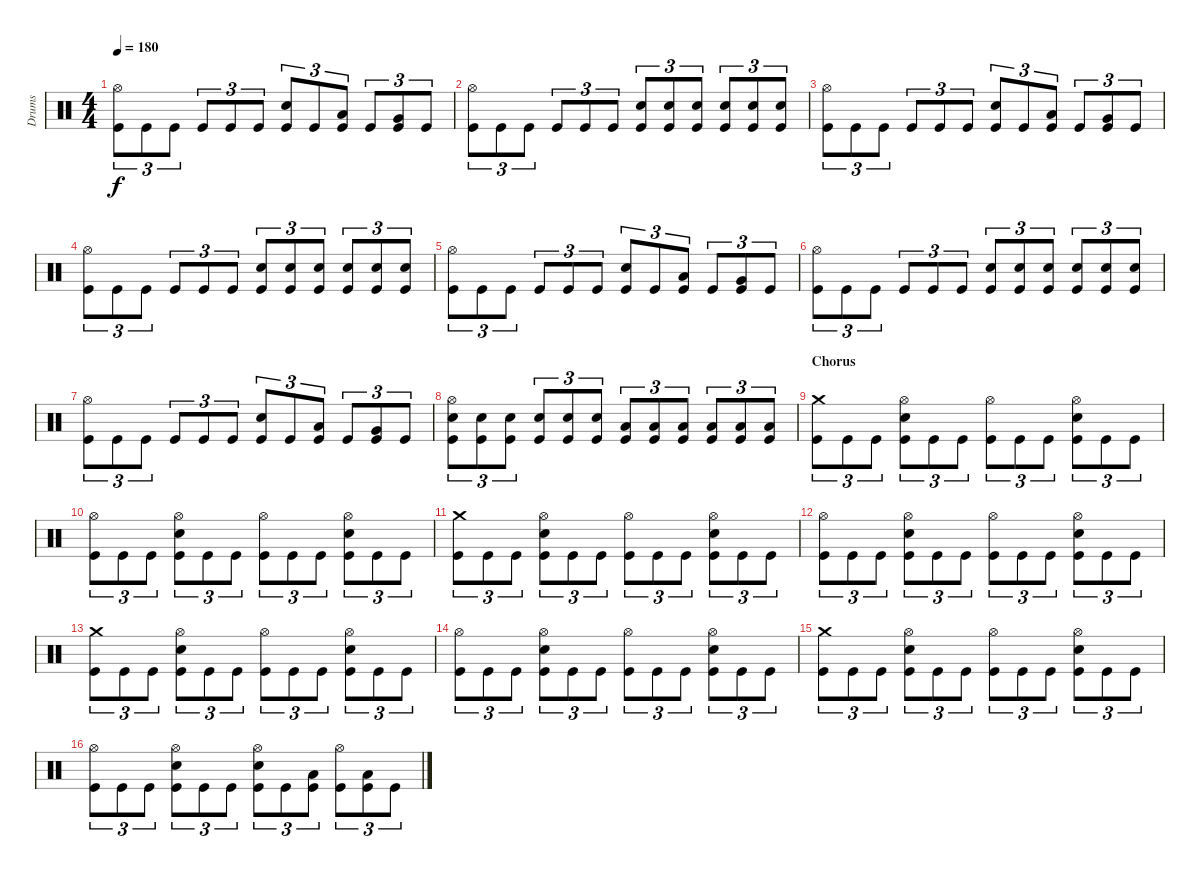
\track ("Drums" "Drums") {instrument percussion}
\staff {score}
\articulation defaults
\ts (4 4)
\tempo 180
\clef neutral
\ks c
("Hi-Hat (open)" "Kick (hit)").8{tu (3 2) dy f} "Kick (hit)".8{tu (3 2)} "Kick (hit)".8{tu (3 2)} "Kick (hit)".8{tu (3 2)} "Kick (hit)".8{tu (3 2)} "Kick (hit)".8{tu (3 2)} ("Electric Snare (hit)" "Kick (hit)").8{tu (3 2)} "Kick (hit)".8{tu (3 2)} ("Low Tom (hit)" "Kick (hit)").8{tu (3 2)} "Kick (hit)".8{tu (3 2)} ("Very Low Tom (hit)" "Kick (hit)").8{tu (3 2)} "Kick (hit)".8{tu (3 2)} |
("Hi-Hat (open)" "Kick (hit)").8{tu (3 2)} "Kick (hit)".8{tu (3 2)} "Kick (hit)".8{tu (3 2)} "Kick (hit)".8{tu (3 2)} "Kick (hit)".8{tu (3 2)} "Kick (hit)".8{tu (3 2)} ("Electric Snare (hit)" "Kick (hit)").8{tu (3 2)} ("Electric Snare (hit)" "Kick (hit)").8{tu (3 2)} ("Electric Snare (hit)" "Kick (hit)").8{tu (3 2)} ("Electric Snare (hit)" "Kick (hit)").8{tu (3 2)} ("Electric Snare (hit)" "Kick (hit)").8{tu (3 2)} ("Electric Snare (hit)" "Kick (hit)").8{tu (3 2)} |
("Hi-Hat (open)" "Kick (hit)").8{tu (3 2)} "Kick (hit)".8{tu (3 2)} "Kick (hit)".8{tu (3 2)} "Kick (hit)".8{tu (3 2)} "Kick (hit)".8{tu (3 2)} "Kick (hit)".8{tu (3 2)} ("Electric Snare (hit)" "Kick (hit)").8{tu (3 2)} "Kick (hit)".8{tu (3 2)} ("Low Tom (hit)" "Kick (hit)").8{tu (3 2)} "Kick (hit)".8{tu (3 2)} ("Very Low Tom (hit)" "Kick (hit)").8{tu (3 2)} "Kick (hit)".8{tu (3 2)} |
("Hi-Hat (open)" "Kick (hit)").8{tu (3 2)} "Kick (hit)".8{tu (3 2)} "Kick (hit)".8{tu (3 2)} "Kick (hit)".8{tu (3 2)} "Kick (hit)".8{tu (3 2)} "Kick (hit)".8{tu (3 2)} ("Electric Snare (hit)" "Kick (hit)").8{tu (3 2)} ("Electric Snare (hit)" "Kick (hit)").8{tu (3 2)} ("Electric Snare (hit)" "Kick (hit)").8{tu (3 2)} ("Electric Snare (hit)" "Kick (hit)").8{tu (3 2)} ("Electric Snare (hit)" "Kick (hit)").8{tu (3 2)} ("Electric Snare (hit)" "Kick (hit)").8{tu (3 2)} |
("Hi-Hat (open)" "Kick (hit)").8{tu (3 2)} "Kick (hit)".8{tu (3 2)} "Kick (hit)".8{tu (3 2)} "Kick (hit)".8{tu (3 2)} "Kick (hit)".8{tu (3 2)} "Kick (hit)".8{tu (3 2)} ("Electric Snare (hit)" "Kick (hit)").8{tu (3 2)} "Kick (hit)".8{tu (3 2)} ("Low Tom (hit)" "Kick (hit)").8{tu (3 2)} "Kick (hit)".8{tu (3 2)} ("Very Low Tom (hit)" "Kick (hit)").8{tu (3 2)} "Kick (hit)".8{tu (3 2)} |
("Hi-Hat (open)" "Kick (hit)").8{tu (3 2)} "Kick (hit)".8{tu (3 2)} "Kick (hit)".8{tu (3 2)} "Kick (hit)".8{tu (3 2)} "Kick (hit)".8{tu (3 2)} "Kick (hit)".8{tu (3 2)} ("Electric Snare (hit)" "Kick (hit)").8{tu (3 2)} ("Electric Snare (hit)" "Kick (hit)").8{tu (3 2)} ("Electric Snare (hit)" "Kick (hit)").8{tu (3 2)} ("Electric Snare (hit)" "Kick (hit)").8{tu (3 2)} ("Electric Snare (hit)" "Kick (hit)").8{tu (3 2)} ("Electric Snare (hit)" "Kick (hit)").8{tu (3 2)} |
("Hi-Hat (open)" "Kick (hit)").8{tu (3 2)} "Kick (hit)".8{tu (3 2)} "Kick (hit)".8{tu (3 2)} "Kick (hit)".8{tu (3 2)} "Kick (hit)".8{tu (3 2)} "Kick (hit)".8{tu (3 2)} ("Electric Snare (hit)" "Kick (hit)").8{tu (3 2)} "Kick (hit)".8{tu (3 2)} ("Low Tom (hit)" "Kick (hit)").8{tu (3 2)} "Kick (hit)".8{tu (3 2)} ("Very Low Tom (hit)" "Kick (hit)").8{tu (3 2)} "Kick (hit)".8{tu (3 2)} |
("Hi-Hat (open)" "Electric Snare (hit)" "Kick (hit)").8{tu (3 2)} ("Electric Snare (hit)" "Kick (hit)").8{tu (3 2)} ("Electric Snare (hit)" "Kick (hit)").8{tu (3 2)} ("Electric Snare (hit)" "Kick (hit)").8{tu (3 2)} ("Electric Snare (hit)" "Kick (hit)").8{tu (3 2)} ("Electric Snare (hit)" "Kick (hit)").8{tu (3 2)} ("Low Tom (hit)" "Kick (hit)").8{tu (3 2)} ("Low Tom (hit)" "Kick (hit)").8{tu (3 2)} ("Low Tom (hit)" "Kick (hit)").8{tu (3 2)} ("Low Tom (hit)" "Kick (hit)").8{tu (3 2)} ("Low Tom (hit)" "Kick (hit)").8{tu (3 2)} ("Low Tom (hit)" "Kick (hit)").8{tu (3 2)} |
\section ("" "Chorus")
("Crash medium (hit)" "Kick (hit)").8{tu (3 2)} "Kick (hit)".8{tu (3 2)} "Kick (hit)".8{tu (3 2)} ("Hi-Hat (open)" "Electric Snare (hit)" "Kick (hit)").8{tu (3 2)} "Kick (hit)".8{tu (3 2)} "Kick (hit)".8{tu (3 2)} ("Hi-Hat (open)" "Kick (hit)").8{tu (3 2)} "Kick (hit)".8{tu (3 2)} "Kick (hit)".8{tu (3 2)} ("Hi-Hat (open)" "Electric Snare (hit)" "Kick (hit)").8{tu (3 2)} "Kick (hit)".8{tu (3 2)} "Kick (hit)".8{tu (3 2)} |
("Hi-Hat (open)" "Kick (hit)").8{tu (3 2)} "Kick (hit)".8{tu (3 2)} "Kick (hit)".8{tu (3 2)} ("Hi-Hat (open)" "Electric Snare (hit)" "Kick (hit)").8{tu (3 2)} "Kick (hit)".8{tu (3 2)} "Kick (hit)".8{tu (3 2)} ("Hi-Hat (open)" "Kick (hit)").8{tu (3 2)} "Kick (hit)".8{tu (3 2)} "Kick (hit)".8{tu (3 2)} ("Hi-Hat (open)" "Electric Snare (hit)" "Kick (hit)").8{tu (3 2)} "Kick (hit)".8{tu (3 2)} "Kick (hit)".8{tu (3 2)} |
("Crash medium (hit)" "Kick (hit)").8{tu (3 2)} "Kick (hit)".8{tu (3 2)} "Kick (hit)".8{tu (3 2)} ("Hi-Hat (open)" "Electric Snare (hit)" "Kick (hit)").8{tu (3 2)} "Kick (hit)".8{tu (3 2)} "Kick (hit)".8{tu (3 2)} ("Hi-Hat (open)" "Kick (hit)").8{tu (3 2)} "Kick (hit)".8{tu (3 2)} "Kick (hit)".8{tu (3 2)} ("Hi-Hat (open)" "Electric Snare (hit)" "Kick (hit)").8{tu (3 2)} "Kick (hit)".8{tu (3 2)} "Kick (hit)".8{tu (3 2)} |
("Hi-Hat (open)" "Kick (hit)").8{tu (3 2)} "Kick (hit)".8{tu (3 2)} "Kick (hit)".8{tu (3 2)} ("Hi-Hat (open)" "Electric Snare (hit)" "Kick (hit)").8{tu (3 2)} "Kick (hit)".8{tu (3 2)} "Kick (hit)".8{tu (3 2)} ("Hi-Hat (open)" "Kick (hit)").8{tu (3 2)} "Kick (hit)".8{tu (3 2)} "Kick (hit)".8{tu (3 2)} ("Hi-Hat (open)" "Electric Snare (hit)" "Kick (hit)").8{tu (3 2)} "Kick (hit)".8{tu (3 2)} "Kick (hit)".8{tu (3 2)} |
("Crash medium (hit)" "Kick (hit)").8{tu (3 2)} "Kick (hit)".8{tu (3 2)} "Kick (hit)".8{tu (3 2)} ("Hi-Hat (open)" "Electric Snare (hit)" "Kick (hit)").8{tu (3 2)} "Kick (hit)".8{tu (3 2)} "Kick (hit)".8{tu (3 2)} ("Hi-Hat (open)" "Kick (hit)").8{tu (3 2)} "Kick (hit)".8{tu (3 2)} "Kick (hit)".8{tu (3 2)} ("Hi-Hat (open)" "Electric Snare (hit)" "Kick (hit)").8{tu (3 2)} "Kick (hit)".8{tu (3 2)} "Kick (hit)".8{tu (3 2)} |
("Hi-Hat (open)" "Kick (hit)").8{tu (3 2)} "Kick (hit)".8{tu (3 2)} "Kick (hit)".8{tu (3 2)} ("Hi-Hat (open)" "Electric Snare (hit)" "Kick (hit)").8{tu (3 2)} "Kick (hit)".8{tu (3 2)} "Kick (hit)".8{tu (3 2)} ("Hi-Hat (open)" "Kick (hit)").8{tu (3 2)} "Kick (hit)".8{tu (3 2)} "Kick (hit)".8{tu (3 2)} ("Hi-Hat (open)" "Electric Snare (hit)" "Kick (hit)").8{tu (3 2)} "Kick (hit)".8{tu (3 2)} "Kick (hit)".8{tu (3 2)} |
("Crash medium (hit)" "Kick (hit)").8{tu (3 2)} "Kick (hit)".8{tu (3 2)} "Kick (hit)".8{tu (3 2)} ("Hi-Hat (open)" "Electric Snare (hit)" "Kick (hit)").8{tu (3 2)} "Kick (hit)".8{tu (3 2)} "Kick (hit)".8{tu (3 2)} ("Hi-Hat (open)" "Kick (hit)").8{tu (3 2)} "Kick (hit)".8{tu (3 2)} "Kick (hit)".8{tu (3 2)} ("Hi-Hat (open)" "Electric Snare (hit)" "Kick (hit)").8{tu (3 2)} "Kick (hit)".8{tu (3 2)} "Kick (hit)".8{tu (3 2)} |
("Hi-Hat (open)" "Kick (hit)").8{tu (3 2)} "Kick (hit)".8{tu (3 2)} "Kick (hit)".8{tu (3 2)} ("Hi-Hat (open)" "Electric Snare (hit)" "Kick (hit)").8{tu (3 2)} "Kick (hit)".8{tu (3 2)} "Kick (hit)".8{tu (3 2)} ("Hi-Hat (open)" "Electric Snare (hit)" "Kick (hit)").8{tu (3 2)} "Kick (hit)".8{tu (3 2)} ("Low Tom (hit)" "Kick (hit)").8{tu (3 2)} ("Hi-Hat (open)" "Kick (hit)").8{tu (3 2)} ("Low Tom (hit)" "Kick (hit)").8{tu (3 2)} "Kick (hit)".8{tu (3 2)}
